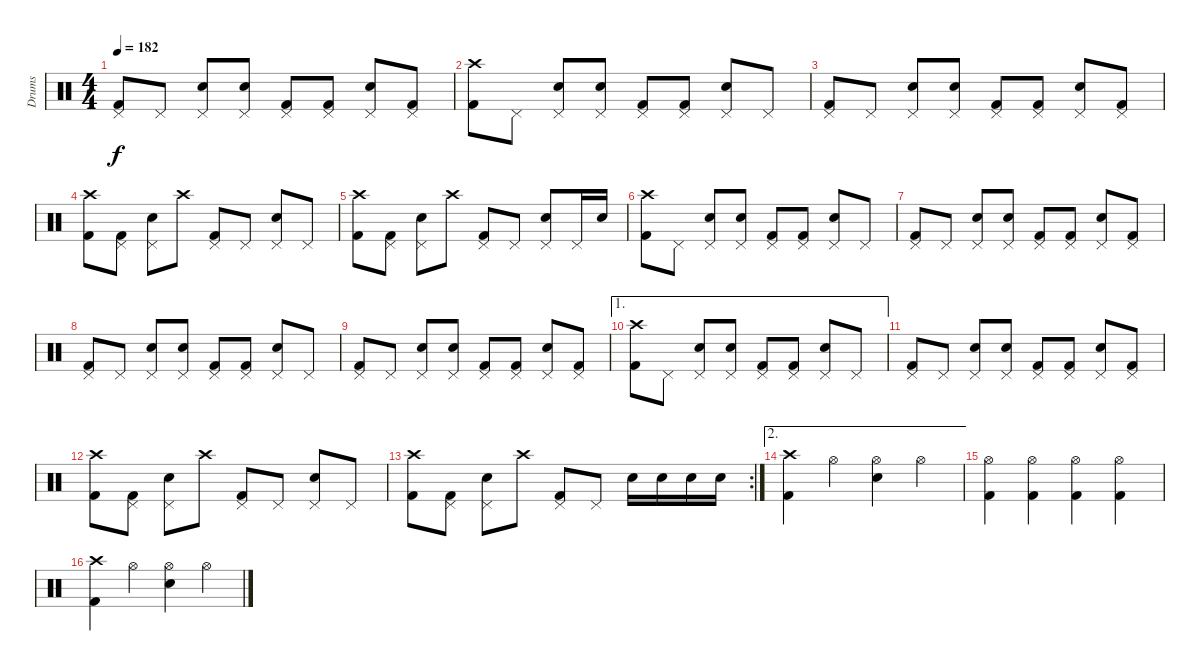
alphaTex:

\track ("Drums" "Drums") {instrument percussion}
\staff {score}
\articulation defaults
\ts (4 4)
\tempo 182
\clef neutral
\ks c
("Pedal Hi-Hat (hit)" "Kick (hit) 2").8{dy f} "Pedal Hi-Hat (hit)".8 ("Pedal Hi-Hat (hit)" "Electric Snare (hit)").8 ("Pedal Hi-Hat (hit)" "Electric Snare (hit)").8 ("Pedal Hi-Hat (hit)" "Kick (hit) 2").8 ("Pedal Hi-Hat (hit)" "Kick (hit) 2").8 ("Pedal Hi-Hat (hit)" "Electric Snare (hit)").8 ("Pedal Hi-Hat (hit)" "Kick (hit) 2").8 |
("Crash high (hit)" "Kick (hit) 2").8 "Pedal Hi-Hat (hit)".8 ("Pedal Hi-Hat (hit)" "Electric Snare (hit)").8 ("Pedal Hi-Hat (hit)" "Electric Snare (hit)").8 ("Pedal Hi-Hat (hit)" "Kick (hit) 2").8 ("Pedal Hi-Hat (hit)" "Kick (hit) 2").8 ("Pedal Hi-Hat (hit)" "Electric Snare (hit)").8 "Pedal Hi-Hat (hit)".8 |
("Pedal Hi-Hat (hit)" "Kick (hit) 2").8 "Pedal Hi-Hat (hit)".8 ("Pedal Hi-Hat (hit)" "Electric Snare (hit)").8 ("Pedal Hi-Hat (hit)" "Electric Snare (hit)").8 ("Pedal Hi-Hat (hit)" "Kick (hit) 2").8 ("Pedal Hi-Hat (hit)" "Kick (hit) 2").8 ("Pedal Hi-Hat (hit)" "Electric Snare (hit)").8 ("Pedal Hi-Hat (hit)" "Kick (hit) 2").8 |
("Crash high (hit)" "Kick (hit) 2").8 ("Pedal Hi-Hat (hit)" "Kick (hit) 2").8 ("Pedal Hi-Hat (hit)" "Electric Snare (hit)").8 "Crash high (hit)".8 ("Pedal Hi-Hat (hit)" "Kick (hit) 2").8 "Pedal Hi-Hat (hit)".8 ("Pedal Hi-Hat (hit)" "Electric Snare (hit)").8 "Pedal Hi-Hat (hit)".8 |
("Crash high (hit)" "Kick (hit) 2").8 ("Pedal Hi-Hat (hit)" "Kick (hit) 2").8 ("Pedal Hi-Hat (hit)" "Electric Snare (hit)").8 "Crash high (hit)".8 ("Pedal Hi-Hat (hit)" "Kick (hit) 2").8 "Pedal Hi-Hat (hit)".8 ("Pedal Hi-Hat (hit)" "Electric Snare (hit)").8 "Pedal Hi-Hat (hit)".16 "Electric Snare (hit)".16 |
("Crash high (hit)" "Kick (hit) 2").8 "Pedal Hi-Hat (hit)".8 ("Pedal Hi-Hat (hit)" "Electric Snare (hit)").8 ("Pedal Hi-Hat (hit)" "Electric Snare (hit)").8 ("Pedal Hi-Hat (hit)" "Kick (hit) 2").8 ("Pedal Hi-Hat (hit)" "Kick (hit) 2").8 ("Pedal Hi-Hat (hit)" "Electric Snare (hit)").8 "Pedal Hi-Hat (hit)".8 |
("Pedal Hi-Hat (hit)" "Kick (hit) 2").8 "Pedal Hi-Hat (hit)".8 ("Pedal Hi-Hat (hit)" "Electric Snare (hit)").8 ("Pedal Hi-Hat (hit)" "Electric Snare (hit)").8 ("Pedal Hi-Hat (hit)" "Kick (hit) 2").8 ("Pedal Hi-Hat (hit)" "Kick (hit) 2").8 ("Pedal Hi-Hat (hit)" "Electric Snare (hit)").8 ("Pedal Hi-Hat (hit)" "Kick (hit) 2").8 |
("Pedal Hi-Hat (hit)" "Kick (hit) 2").8 "Pedal Hi-Hat (hit)".8 ("Pedal Hi-Hat (hit)" "Electric Snare (hit)").8 ("Pedal Hi-Hat (hit)" "Electric Snare (hit)").8 ("Pedal Hi-Hat (hit)" "Kick (hit) 2").8 ("Pedal Hi-Hat (hit)" "Kick (hit) 2").8 ("Pedal Hi-Hat (hit)" "Electric Snare (hit)").8 "Pedal Hi-Hat (hit)".8 |
("Pedal Hi-Hat (hit)" "Kick (hit) 2").8 "Pedal Hi-Hat (hit)".8 ("Pedal Hi-Hat (hit)" "Electric Snare (hit)").8 ("Pedal Hi-Hat (hit)" "Electric Snare (hit)").8 ("Pedal Hi-Hat (hit)" "Kick (hit) 2").8 ("Pedal Hi-Hat (hit)" "Kick (hit) 2").8 ("Pedal Hi-Hat (hit)" "Electric Snare (hit)").8 ("Pedal Hi-Hat (hit)" "Kick (hit) 2").8 |
\ae 1
("Crash high (hit)" "Kick (hit) 2").8 "Pedal Hi-Hat (hit)".8 ("Pedal Hi-Hat (hit)" "Electric Snare (hit)").8 ("Pedal Hi-Hat (hit)" "Electric Snare (hit)").8 ("Pedal Hi-Hat (hit)" "Kick (hit) 2").8 ("Pedal Hi-Hat (hit)" "Kick (hit) 2").8 ("Pedal Hi-Hat (hit)" "Electric Snare (hit)").8 "Pedal Hi-Hat (hit)".8 |
("Pedal Hi-Hat (hit)" "Kick (hit) 2").8 "Pedal Hi-Hat (hit)".8 ("Pedal Hi-Hat (hit)" "Electric Snare (hit)").8 ("Pedal Hi-Hat (hit)" "Electric Snare (hit)").8 ("Pedal Hi-Hat (hit)" "Kick (hit) 2").8 ("Pedal Hi-Hat (hit)" "Kick (hit) 2").8 ("Pedal Hi-Hat (hit)" "Electric Snare (hit)").8 ("Pedal Hi-Hat (hit)" "Kick (hit) 2").8 |
("Crash high (hit)" "Kick (hit) 2").8 ("Pedal Hi-Hat (hit)" "Kick (hit) 2").8 ("Pedal Hi-Hat (hit)" "Electric Snare (hit)").8 "Crash high (hit)".8 ("Pedal Hi-Hat (hit)" "Kick (hit) 2").8 "Pedal Hi-Hat (hit)".8 ("Pedal Hi-Hat (hit)" "Electric Snare (hit)").8 "Pedal Hi-Hat (hit)".8 |
\rc 2
("Crash high (hit)" "Kick (hit) 2").8 ("Pedal Hi-Hat (hit)" "Kick (hit) 2").8 ("Pedal Hi-Hat (hit)" "Electric Snare (hit)").8 "Crash high (hit)".8 ("Pedal Hi-Hat (hit)" "Kick (hit) 2").8 "Pedal Hi-Hat (hit)".8 "Electric Snare (hit)".16 "Electric Snare (hit)".16 "Electric Snare (hit)".16 "Electric Snare (hit)".16 |
\ae 2
("Crash high (hit)" "Kick (hit) 2").4 "Hi-Hat (open)".4 ("Hi-Hat (open)" "Electric Snare (hit)").4 "Hi-Hat (open)".4 |
("Hi-Hat (open)" "Kick (hit) 2").4 ("Hi-Hat (open)" "Kick (hit) 2").4 ("Hi-Hat (open)" "Kick (hit) 2").4 ("Hi-Hat (open)" "Kick (hit) 2").4 |
("Crash high (hit)" "Kick (hit) 2").4 "Hi-Hat (open)".4 ("Hi-Hat (open)" "Electric Snare (hit)").4 "Hi-Hat (open)".4
